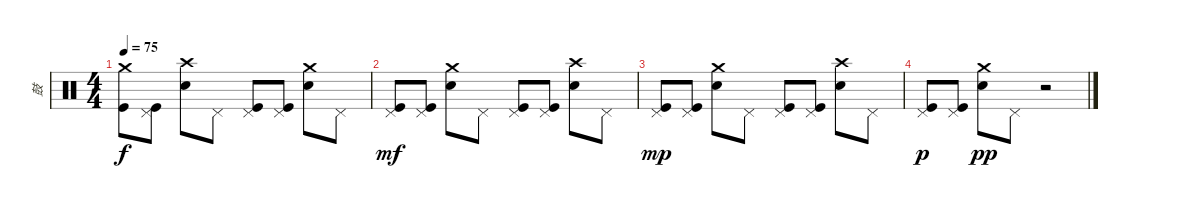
\track ("鼓" "鼓") {instrument percussion}
\staff {score}
\articulation defaults
\ts (4 4)
\tempo 75
\clef neutral
\ks c
("Kick (hit)" "Crash medium (hit)").8{dy f} ("Kick (hit)" "Pedal Hi-Hat (hit)").8 ("Snare (hit) 2" "Crash high (hit)").8 "Pedal Hi-Hat (hit)".8 ("Kick (hit)" "Pedal Hi-Hat (hit)").8 ("Kick (hit)" "Pedal Hi-Hat (hit)").8 ("Snare (hit) 2" "Crash medium (hit)").8 "Pedal Hi-Hat (hit)".8 |
("Kick (hit)" "Pedal Hi-Hat (hit)").8{dy mf} ("Kick (hit)" "Pedal Hi-Hat (hit)").8 ("Snare (hit) 2" "Crash medium (hit)").8 "Pedal Hi-Hat (hit)".8 ("Kick (hit)" "Pedal Hi-Hat (hit)").8 ("Kick (hit)" "Pedal Hi-Hat (hit)").8 ("Snare (hit) 2" "Crash high (hit)").8 "Pedal Hi-Hat (hit)".8 |
("Kick (hit)" "Pedal Hi-Hat (hit)").8{dy mp} ("Kick (hit)" "Pedal Hi-Hat (hit)").8 ("Snare (hit) 2" "Crash medium (hit)").8 "Pedal Hi-Hat (hit)".8 ("Kick (hit)" "Pedal Hi-Hat (hit)").8 ("Kick (hit)" "Pedal Hi-Hat (hit)").8 ("Snare (hit) 2" "Crash high (hit)").8 "Pedal Hi-Hat (hit)".8 |
("Kick (hit)" "Pedal Hi-Hat (hit)").8{dy p} ("Kick (hit)" "Pedal Hi-Hat (hit)").8 ("Snare (hit) 2" "Crash medium (hit)").8{dy pp} "Pedal Hi-Hat (hit)".8 r.2
